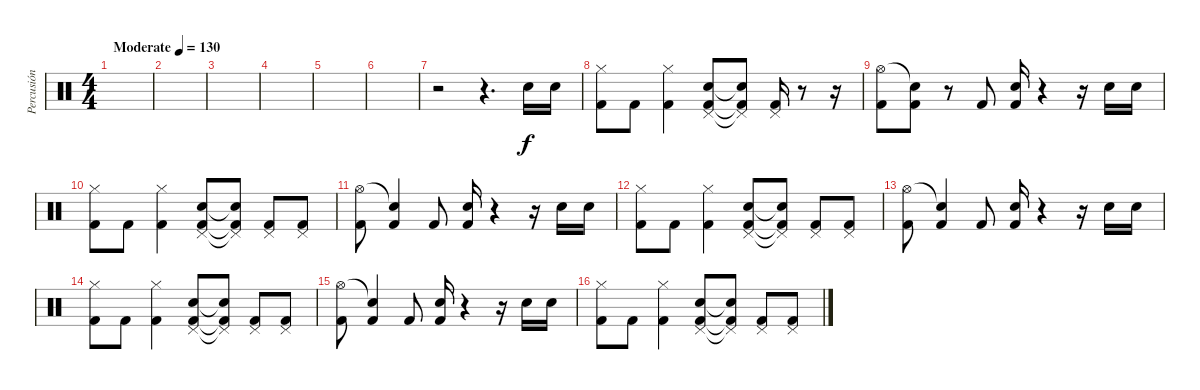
\track ("Percusión" "Percusión") {instrument percussion}
\staff {score}
\articulation defaults
\ts (4 4)
\tempo (130 "Moderate")
\clef neutral
\ks c
|
|
|
|
|
|
r.2 r.4{d} "Electric Snare (hit)".16 "Electric Snare (hit)".16 |
("Kick (hit) 2" "Hi-Hat (closed)").8 "Kick (hit) 2".8 ("Kick (hit) 2" "Hi-Hat (closed)").4 ("Electric Snare (hit)" "Kick (hit) 2" "Pedal Hi-Hat (hit)").8 ("Snare (hit)"{t} "Kick (hit) 2"{t} "Pedal Hi-Hat (hit)"{t}).8 ("Kick (hit) 2" "Pedal Hi-Hat (hit)").16 r.8 r.16 |
("Kick (hit) 2" "Hi-Hat (open)").8 ("Kick (hit) 2" "Snare (hit)"{t}).8 r.8 "Kick (hit) 2".8 ("Electric Snare (hit)" "Kick (hit) 2").16 r.4 r.16 "Electric Snare (hit)".16 "Electric Snare (hit)".16 |
("Kick (hit) 2" "Hi-Hat (closed)").8 "Kick (hit) 2".8 ("Kick (hit) 2" "Hi-Hat (closed)").4 ("Electric Snare (hit)" "Kick (hit) 2" "Pedal Hi-Hat (hit)").8 ("Snare (hit)"{t} "Kick (hit) 2"{t} "Pedal Hi-Hat (hit)"{t}).8 ("Kick (hit) 2" "Pedal Hi-Hat (hit)").8 ("Kick (hit) 2" "Pedal Hi-Hat (hit)").8 |
("Kick (hit) 2" "Hi-Hat (open)").8 ("Kick (hit) 2" "Snare (hit)"{t}).4 "Kick (hit) 2".8 ("Electric Snare (hit)" "Kick (hit) 2").16 r.4 r.16 "Electric Snare (hit)".16 "Electric Snare (hit)".16 |
("Kick (hit) 2" "Hi-Hat (closed)").8 "Kick (hit) 2".8 ("Kick (hit) 2" "Hi-Hat (closed)").4 ("Electric Snare (hit)" "Kick (hit) 2" "Pedal Hi-Hat (hit)").8 ("Snare (hit)"{t} "Kick (hit) 2"{t} "Pedal Hi-Hat (hit)"{t}).8 ("Kick (hit) 2" "Pedal Hi-Hat (hit)").8 ("Kick (hit) 2" "Pedal Hi-Hat (hit)").8 |
("Kick (hit) 2" "Hi-Hat (open)").8 ("Kick (hit) 2" "Snare (hit)"{t}).4 "Kick (hit) 2".8 ("Electric Snare (hit)" "Kick (hit) 2").16 r.4 r.16 "Electric Snare (hit)".16 "Electric Snare (hit)".16 |
("Kick (hit) 2" "Hi-Hat (closed)").8 "Kick (hit) 2".8 ("Kick (hit) 2" "Hi-Hat (closed)").4 ("Electric Snare (hit)" "Kick (hit) 2" "Pedal Hi-Hat (hit)").8 ("Snare (hit)"{t} "Kick (hit) 2"{t} "Pedal Hi-Hat (hit)"{t}).8 ("Kick (hit) 2" "Pedal Hi-Hat (hit)").8 ("Kick (hit) 2" "Pedal Hi-Hat (hit)").8 |
("Kick (hit) 2" "Hi-Hat (open)").8 ("Kick (hit) 2" "Snare (hit)"{t}).4 "Kick (hit) 2".8 ("Electric Snare (hit)" "Kick (hit) 2").16 r.4 r.16 "Electric Snare (hit)".16 "Electric Snare (hit)".16 |
("Kick (hit) 2" "Hi-Hat (closed)").8 "Kick (hit) 2".8 ("Kick (hit) 2" "Hi-Hat (closed)").4 ("Electric Snare (hit)" "Kick (hit) 2" "Pedal Hi-Hat (hit)").8 ("Snare (hit)"{t} "Kick (hit) 2"{t} "Pedal Hi-Hat (hit)"{t}).8 ("Kick (hit) 2" "Pedal Hi-Hat (hit)").8 ("Kick (hit) 2" "Pedal Hi-Hat (hit)").8
